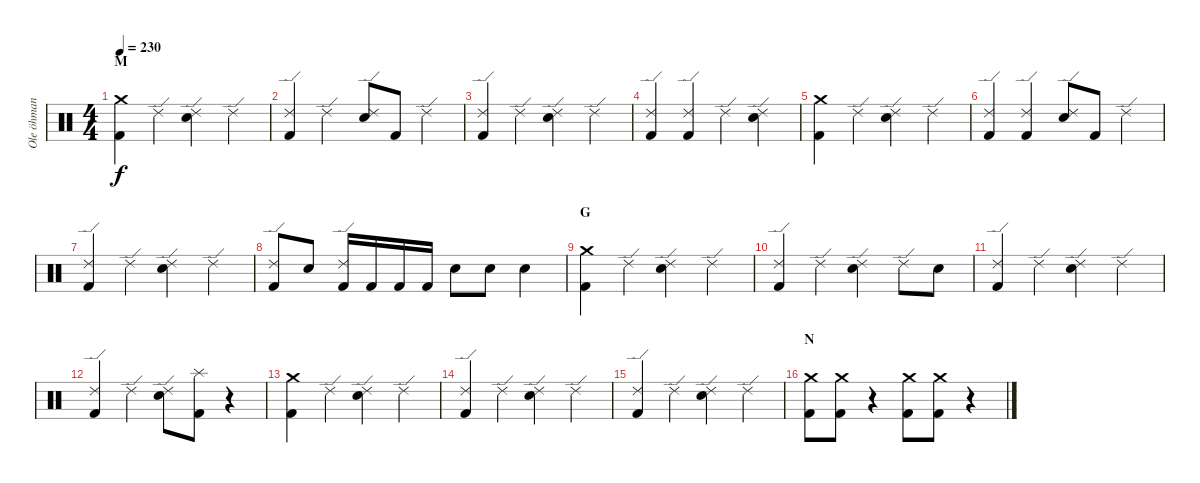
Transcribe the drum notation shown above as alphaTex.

\track ("Ole öhman" "Ole öhman") {instrument percussion}
\staff {score}
\articulation defaults
\ts (4 4)
\section ("" "M")
\tempo 230
\clef neutral
\ks c
("Crash medium (hit)" "Kick (hit) 2").4{dy f} "Ride (edge) 2".4 ("Ride (edge) 2" "Electric Snare (hit)").4 "Ride (edge) 2".4 |
("Ride (edge) 2" "Kick (hit) 2").4 "Ride (edge) 2".4 ("Ride (edge) 2" "Electric Snare (hit)").8 "Kick (hit) 2".8 "Ride (edge) 2".4 |
("Ride (edge) 2" "Kick (hit) 2").4 "Ride (edge) 2".4 ("Ride (edge) 2" "Electric Snare (hit)").4 "Ride (edge) 2".4 |
("Ride (edge) 2" "Kick (hit) 2").4 ("Ride (edge) 2" "Kick (hit) 2").4 "Ride (edge) 2".4 ("Ride (edge) 2" "Electric Snare (hit)").4 |
("Crash medium (hit)" "Kick (hit) 2").4 "Ride (edge) 2".4 ("Ride (edge) 2" "Electric Snare (hit)").4 "Ride (edge) 2".4 |
("Ride (edge) 2" "Kick (hit) 2").4 ("Ride (edge) 2" "Kick (hit) 2").4 ("Ride (edge) 2" "Electric Snare (hit)").8 "Kick (hit) 2".8 "Ride (edge) 2".4 |
("Ride (edge) 2" "Kick (hit) 2").4 "Ride (edge) 2".4 ("Ride (edge) 2" "Electric Snare (hit)").4 "Ride (edge) 2".4 |
("Ride (edge) 2" "Kick (hit) 2").8 "Electric Snare (hit)".8 ("Ride (edge) 2" "Kick (hit) 2").16 "Kick (hit) 2".16 "Kick (hit) 2".16 "Kick (hit) 2".16 "Electric Snare (hit)".8 "Electric Snare (hit)".8 "Electric Snare (hit)".4 |
\section ("" "G")
("Crash medium (hit)" "Kick (hit) 2").4 "Ride (edge) 2".4 ("Ride (edge) 2" "Electric Snare (hit)").4 "Ride (edge) 2".4 |
("Ride (edge) 2" "Kick (hit) 2").4 "Ride (edge) 2".4 ("Ride (edge) 2" "Electric Snare (hit)").4 "Ride (edge) 2".8 "Electric Snare (hit)".8 |
("Ride (edge) 2" "Kick (hit) 2").4 "Ride (edge) 2".4 ("Ride (edge) 2" "Electric Snare (hit)").4 "Ride (edge) 2".4 |
("Ride (edge) 2" "Kick (hit) 2").4 "Ride (edge) 2".4 ("Ride (edge) 2" "Electric Snare (hit)").8 ("Splash (hit)" "Kick (hit) 2").8 r.4 |
("Crash medium (hit)" "Kick (hit) 2").4 "Ride (edge) 2".4 ("Ride (edge) 2" "Electric Snare (hit)").4 "Ride (edge) 2".4 |
("Ride (edge) 2" "Kick (hit) 2").4 "Ride (edge) 2".4 ("Ride (edge) 2" "Electric Snare (hit)").4 "Ride (edge) 2".4 |
("Ride (edge) 2" "Kick (hit) 2").4 "Ride (edge) 2".4 ("Ride (edge) 2" "Electric Snare (hit)").4 "Ride (edge) 2".4 |
\section ("" "N")
("Crash medium (hit)" "Kick (hit) 2").8 ("Crash medium (hit)" "Kick (hit) 2").8 r.4 ("Crash medium (hit)" "Kick (hit) 2").8 ("Crash medium (hit)" "Kick (hit) 2").8 r.4
